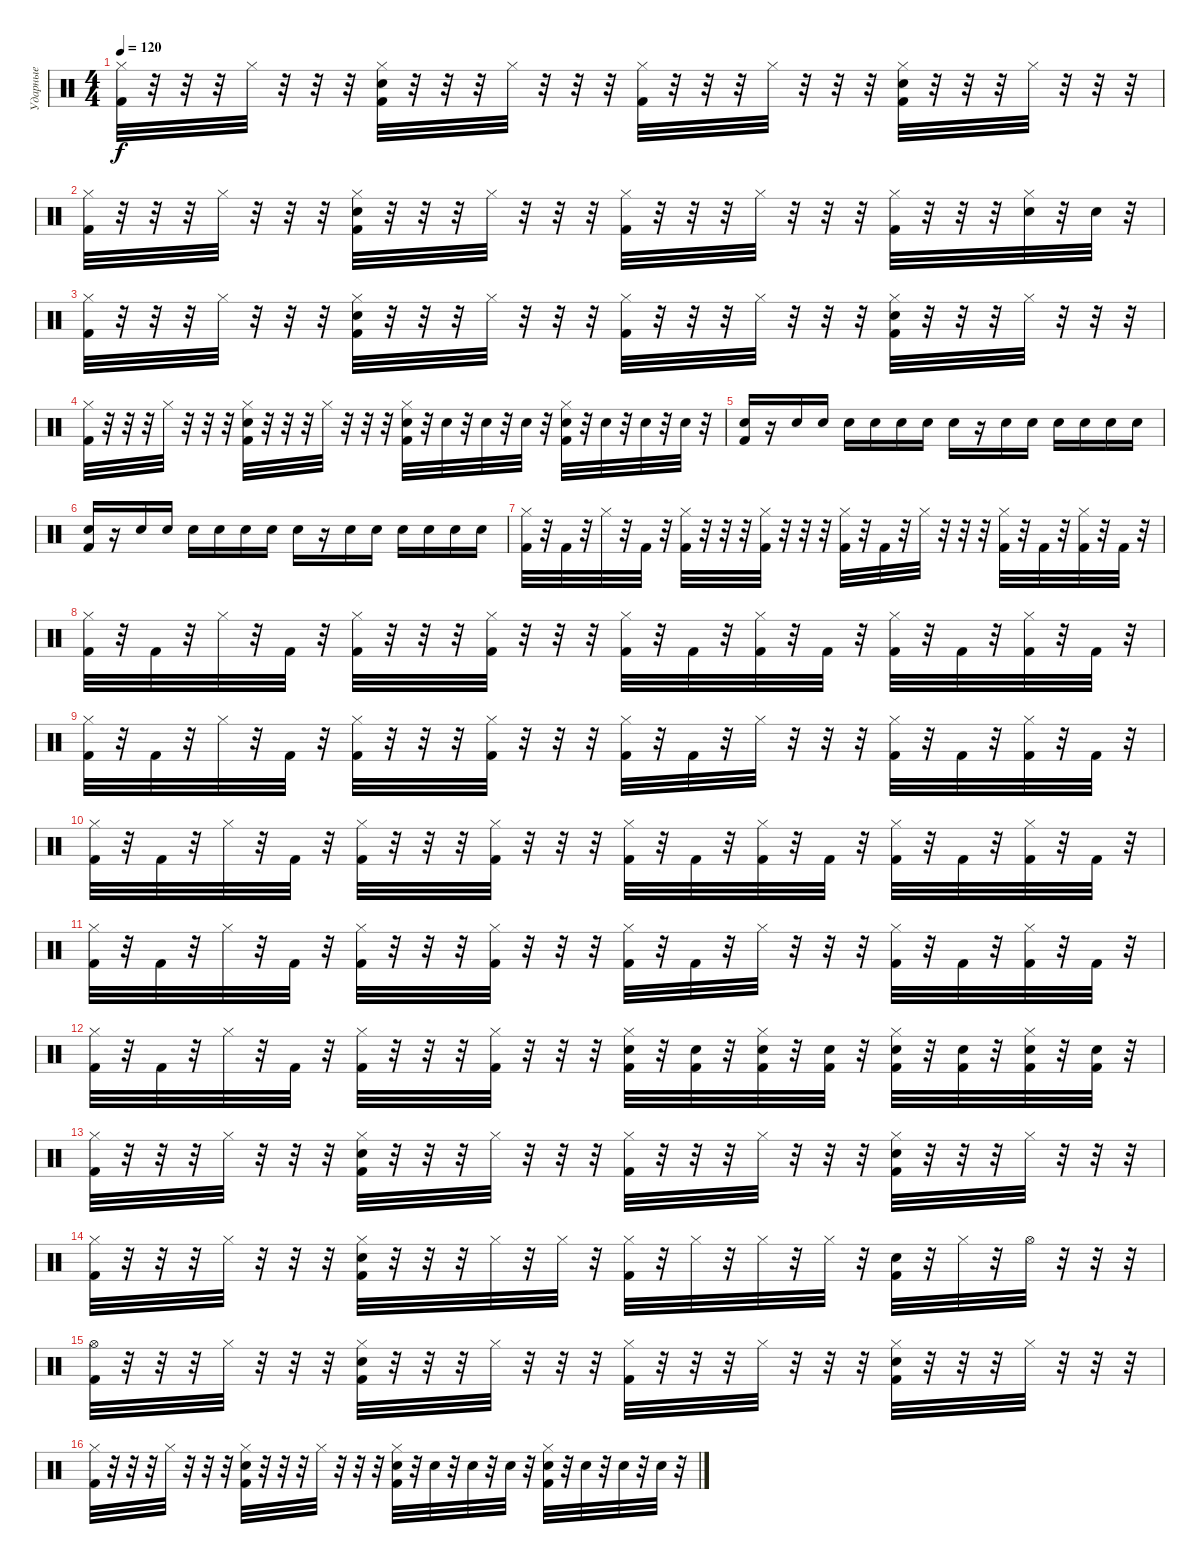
\track ("Ударные" "Ударные") {instrument percussion}
\staff {score}
\articulation defaults
\ts (4 4)
\tempo 120
\clef neutral
\ks c
("Hi-Hat (closed)" "Kick (hit) 2").32{dy f} r.32 r.32 r.32 "Hi-Hat (closed)".32 r.32 r.32 r.32 ("Hi-Hat (closed)" "Kick (hit) 2" "Snare (hit) 2").32 r.32 r.32 r.32 "Hi-Hat (closed)".32 r.32 r.32 r.32 ("Hi-Hat (closed)" "Kick (hit) 2").32 r.32 r.32 r.32 "Hi-Hat (closed)".32 r.32 r.32 r.32 ("Snare (hit) 2" "Kick (hit) 2" "Hi-Hat (closed)").32 r.32 r.32 r.32 "Hi-Hat (closed)".32 r.32 r.32 r.32 |
("Hi-Hat (closed)" "Kick (hit) 2").32 r.32 r.32 r.32 "Hi-Hat (closed)".32 r.32 r.32 r.32 ("Hi-Hat (closed)" "Kick (hit) 2" "Snare (hit) 2").32 r.32 r.32 r.32 "Hi-Hat (closed)".32 r.32 r.32 r.32 ("Hi-Hat (closed)" "Kick (hit) 2").32 r.32 r.32 r.32 "Hi-Hat (closed)".32 r.32 r.32 r.32 ("Kick (hit) 2" "Hi-Hat (closed)").32 r.32 r.32 r.32 ("Snare (hit) 2" "Hi-Hat (closed)").32 r.32 "Snare (hit) 2".32 r.32 |
("Hi-Hat (closed)" "Kick (hit) 2").32 r.32 r.32 r.32 "Hi-Hat (closed)".32 r.32 r.32 r.32 ("Hi-Hat (closed)" "Kick (hit) 2" "Snare (hit) 2").32 r.32 r.32 r.32 "Hi-Hat (closed)".32 r.32 r.32 r.32 ("Hi-Hat (closed)" "Kick (hit) 2").32 r.32 r.32 r.32 "Hi-Hat (closed)".32 r.32 r.32 r.32 ("Snare (hit) 2" "Kick (hit) 2" "Hi-Hat (closed)").32 r.32 r.32 r.32 "Hi-Hat (closed)".32 r.32 r.32 r.32 |
("Hi-Hat (closed)" "Kick (hit) 2").32 r.32 r.32 r.32 "Hi-Hat (closed)".32 r.32 r.32 r.32 ("Hi-Hat (closed)" "Kick (hit) 2" "Snare (hit) 2").32 r.32 r.32 r.32 "Hi-Hat (closed)".32 r.32 r.32 r.32 ("Hi-Hat (closed)" "Kick (hit) 2" "Snare (hit) 2").32 r.32 "Snare (hit) 2".32 r.32 "Snare (hit) 2".32 r.32 "Snare (hit) 2".32 r.32 ("Snare (hit) 2" "Kick (hit) 2" "Hi-Hat (closed)").32 r.32 "Snare (hit) 2".32 r.32 "Snare (hit) 2".32 r.32 "Snare (hit) 2".32 r.32 |
("Snare (hit) 2" "Kick (hit) 2").16 r.16 "Snare (hit) 2".16 "Snare (hit) 2".16 "Snare (hit) 2".16 "Snare (hit) 2".16 "Snare (hit) 2".16 "Snare (hit) 2".16 "Snare (hit) 2".16 r.16 "Snare (hit) 2".16 "Snare (hit) 2".16 "Snare (hit) 2".16 "Snare (hit) 2".16 "Snare (hit) 2".16 "Snare (hit) 2".16 |
("Snare (hit) 2" "Kick (hit) 2").16 r.16 "Snare (hit) 2".16 "Snare (hit) 2".16 "Snare (hit) 2".16 "Snare (hit) 2".16 "Snare (hit) 2".16 "Snare (hit) 2".16 "Snare (hit) 2".16 r.16 "Snare (hit) 2".16 "Snare (hit) 2".16 "Snare (hit) 2".16 "Snare (hit) 2".16 "Snare (hit) 2".16 "Snare (hit) 2".16 |
("Kick (hit) 2" "Hi-Hat (closed)").32 r.32 "Kick (hit) 2".32 r.32 "Hi-Hat (closed)".32 r.32 "Kick (hit) 2".32 r.32 ("Kick (hit) 2" "Hi-Hat (closed)").32 r.32 r.32 r.32 ("Kick (hit) 2" "Hi-Hat (closed)").32 r.32 r.32 r.32 ("Kick (hit) 2" "Hi-Hat (closed)").32 r.32 "Kick (hit) 2".32 r.32 "Hi-Hat (closed)".32 r.32 r.32 r.32 ("Kick (hit) 2" "Hi-Hat (closed)").32 r.32 "Kick (hit) 2".32 r.32 ("Kick (hit) 2" "Hi-Hat (closed)").32 r.32 "Kick (hit) 2".32 r.32 |
("Kick (hit) 2" "Hi-Hat (closed)").32 r.32 "Kick (hit) 2".32 r.32 "Hi-Hat (closed)".32 r.32 "Kick (hit) 2".32 r.32 ("Kick (hit) 2" "Hi-Hat (closed)").32 r.32 r.32 r.32 ("Kick (hit) 2" "Hi-Hat (closed)").32 r.32 r.32 r.32 ("Kick (hit) 2" "Hi-Hat (closed)").32 r.32 "Kick (hit) 2".32 r.32 ("Kick (hit) 2" "Hi-Hat (closed)").32 r.32 "Kick (hit) 2".32 r.32 ("Kick (hit) 2" "Hi-Hat (closed)").32 r.32 "Kick (hit) 2".32 r.32 ("Kick (hit) 2" "Hi-Hat (closed)").32 r.32 "Kick (hit) 2".32 r.32 |
("Kick (hit) 2" "Hi-Hat (closed)").32 r.32 "Kick (hit) 2".32 r.32 "Hi-Hat (closed)".32 r.32 "Kick (hit) 2".32 r.32 ("Kick (hit) 2" "Hi-Hat (closed)").32 r.32 r.32 r.32 ("Kick (hit) 2" "Hi-Hat (closed)").32 r.32 r.32 r.32 ("Kick (hit) 2" "Hi-Hat (closed)").32 r.32 "Kick (hit) 2".32 r.32 "Hi-Hat (closed)".32 r.32 r.32 r.32 ("Kick (hit) 2" "Hi-Hat (closed)").32 r.32 "Kick (hit) 2".32 r.32 ("Kick (hit) 2" "Hi-Hat (closed)").32 r.32 "Kick (hit) 2".32 r.32 |
("Kick (hit) 2" "Hi-Hat (closed)").32 r.32 "Kick (hit) 2".32 r.32 "Hi-Hat (closed)".32 r.32 "Kick (hit) 2".32 r.32 ("Kick (hit) 2" "Hi-Hat (closed)").32 r.32 r.32 r.32 ("Kick (hit) 2" "Hi-Hat (closed)").32 r.32 r.32 r.32 ("Kick (hit) 2" "Hi-Hat (closed)").32 r.32 "Kick (hit) 2".32 r.32 ("Kick (hit) 2" "Hi-Hat (closed)").32 r.32 "Kick (hit) 2".32 r.32 ("Kick (hit) 2" "Hi-Hat (closed)").32 r.32 "Kick (hit) 2".32 r.32 ("Kick (hit) 2" "Hi-Hat (closed)").32 r.32 "Kick (hit) 2".32 r.32 |
("Kick (hit) 2" "Hi-Hat (closed)").32 r.32 "Kick (hit) 2".32 r.32 "Hi-Hat (closed)".32 r.32 "Kick (hit) 2".32 r.32 ("Kick (hit) 2" "Hi-Hat (closed)").32 r.32 r.32 r.32 ("Kick (hit) 2" "Hi-Hat (closed)").32 r.32 r.32 r.32 ("Kick (hit) 2" "Hi-Hat (closed)").32 r.32 "Kick (hit) 2".32 r.32 "Hi-Hat (closed)".32 r.32 r.32 r.32 ("Kick (hit) 2" "Hi-Hat (closed)").32 r.32 "Kick (hit) 2".32 r.32 ("Kick (hit) 2" "Hi-Hat (closed)").32 r.32 "Kick (hit) 2".32 r.32 |
("Kick (hit) 2" "Hi-Hat (closed)").32 r.32 "Kick (hit) 2".32 r.32 "Hi-Hat (closed)".32 r.32 "Kick (hit) 2".32 r.32 ("Kick (hit) 2" "Hi-Hat (closed)").32 r.32 r.32 r.32 ("Kick (hit) 2" "Hi-Hat (closed)").32 r.32 r.32 r.32 ("Kick (hit) 2" "Hi-Hat (closed)" "Snare (hit) 2").32 r.32 ("Kick (hit) 2" "Snare (hit) 2").32 r.32 ("Kick (hit) 2" "Hi-Hat (closed)" "Snare (hit) 2").32 r.32 ("Kick (hit) 2" "Snare (hit) 2").32 r.32 ("Kick (hit) 2" "Hi-Hat (closed)" "Snare (hit) 2").32 r.32 ("Kick (hit) 2" "Snare (hit) 2").32 r.32 ("Kick (hit) 2" "Hi-Hat (closed)" "Snare (hit) 2").32 r.32 ("Kick (hit) 2" "Snare (hit) 2").32 r.32 |
("Hi-Hat (closed)" "Kick (hit) 2").32 r.32 r.32 r.32 "Hi-Hat (closed)".32 r.32 r.32 r.32 ("Hi-Hat (closed)" "Kick (hit) 2" "Snare (hit) 2").32 r.32 r.32 r.32 "Hi-Hat (closed)".32 r.32 r.32 r.32 ("Hi-Hat (closed)" "Kick (hit) 2").32 r.32 r.32 r.32 "Hi-Hat (closed)".32 r.32 r.32 r.32 ("Snare (hit) 2" "Kick (hit) 2" "Hi-Hat (closed)").32 r.32 r.32 r.32 "Hi-Hat (closed)".32 r.32 r.32 r.32 |
("Hi-Hat (closed)" "Kick (hit) 2").32 r.32 r.32 r.32 "Hi-Hat (closed)".32 r.32 r.32 r.32 ("Hi-Hat (closed)" "Kick (hit) 2" "Snare (hit) 2").32 r.32 r.32 r.32 "Hi-Hat (closed)".32 r.32 "Hi-Hat (closed)".32 r.32 ("Hi-Hat (closed)" "Kick (hit) 2").32 r.32 "Hi-Hat (closed)".32 r.32 "Hi-Hat (closed)".32 r.32 "Hi-Hat (closed)".32 r.32 ("Snare (hit) 2" "Kick (hit) 2").32 r.32 "Hi-Hat (closed)".32 r.32 "Hi-Hat (open)".32 r.32 r.32 r.32 |
("Hi-Hat (open)" "Kick (hit) 2").32 r.32 r.32 r.32 "Hi-Hat (closed)".32 r.32 r.32 r.32 ("Hi-Hat (closed)" "Kick (hit) 2" "Snare (hit) 2").32 r.32 r.32 r.32 "Hi-Hat (closed)".32 r.32 r.32 r.32 ("Hi-Hat (closed)" "Kick (hit) 2").32 r.32 r.32 r.32 "Hi-Hat (closed)".32 r.32 r.32 r.32 ("Snare (hit) 2" "Kick (hit) 2" "Hi-Hat (closed)").32 r.32 r.32 r.32 "Hi-Hat (closed)".32 r.32 r.32 r.32 |
("Hi-Hat (closed)" "Kick (hit) 2").32 r.32 r.32 r.32 "Hi-Hat (closed)".32 r.32 r.32 r.32 ("Hi-Hat (closed)" "Kick (hit) 2" "Snare (hit) 2").32 r.32 r.32 r.32 "Hi-Hat (closed)".32 r.32 r.32 r.32 ("Hi-Hat (closed)" "Kick (hit) 2" "Snare (hit) 2").32 r.32 "Snare (hit) 2".32 r.32 "Snare (hit) 2".32 r.32 "Snare (hit) 2".32 r.32 ("Snare (hit) 2" "Kick (hit) 2" "Hi-Hat (closed)").32 r.32 "Snare (hit) 2".32 r.32 "Snare (hit) 2".32 r.32 "Snare (hit) 2".32 r.32
